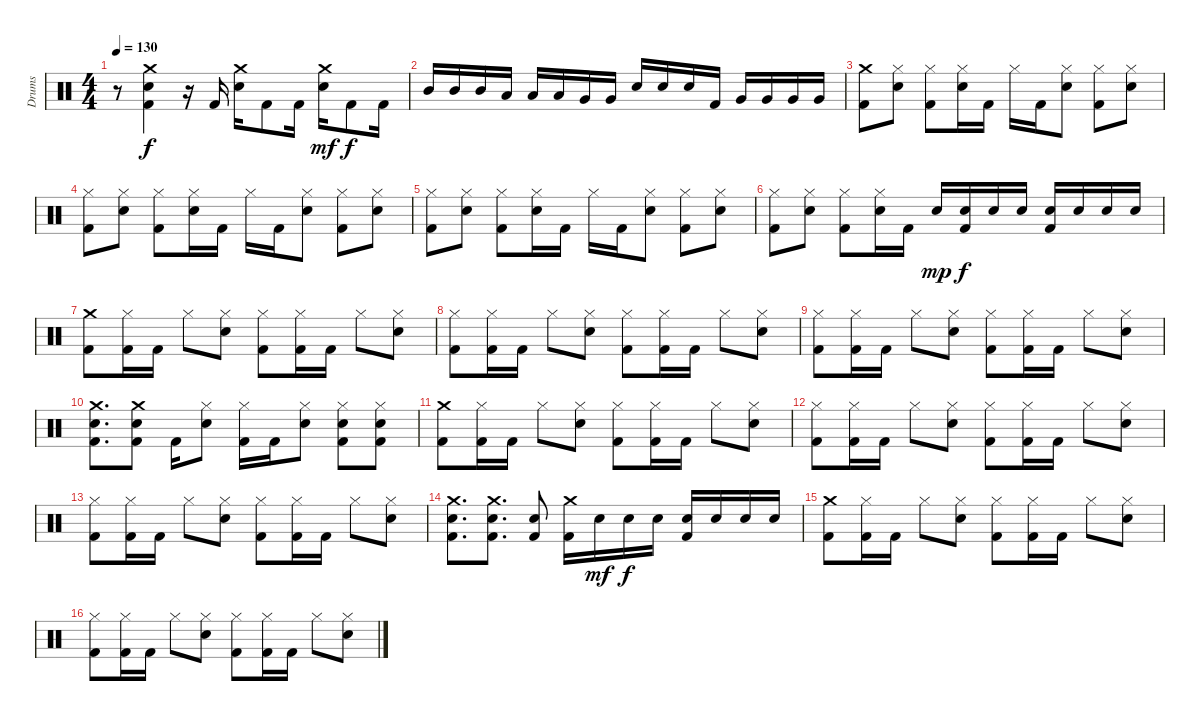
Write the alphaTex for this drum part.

\track ("Drums" "Drums") {instrument percussion}
\staff {score}
\articulation defaults
\ts (4 4)
\tempo 130
\clef neutral
\ks c
r.8{dy f} ("Crash medium (hit)" "Electric Snare (hit)" "Kick (hit) 2").4 r.16 "Kick (hit) 2".16 ("Crash medium (hit)" "Electric Snare (hit)").16 "Kick (hit) 2".8 "Kick (hit) 2".16 ("Crash medium (hit)" "Electric Snare (hit)").16{dy mf} "Kick (hit) 2".8{dy f} "Kick (hit) 2".16 |
"Mid Tom (hit)".16 "Mid Tom (hit)".16 "Mid Tom (hit)".16 "Low Tom (hit)".16 "Low Tom (hit)".16 "Low Tom (hit)".16 "Very Low Tom (hit)".16 "Very Low Tom (hit)".16 "Electric Snare (hit)".16 "Electric Snare (hit)".16 "Electric Snare (hit)".16 "Kick (hit) 2".16 "Very Low Tom (hit)".16 "Very Low Tom (hit)".16 "Very Low Tom (hit)".16 "Very Low Tom (hit)".16 |
("Crash medium (hit)" "Kick (hit) 2").8 ("Hi-Hat (closed)" "Electric Snare (hit)").8 ("Hi-Hat (closed)" "Kick (hit) 2").8 ("Hi-Hat (closed)" "Electric Snare (hit)").16 "Kick (hit) 2".16 "Hi-Hat (closed)".16 "Kick (hit) 2".16 ("Hi-Hat (closed)" "Electric Snare (hit)").8 ("Hi-Hat (closed)" "Kick (hit) 2").8 ("Hi-Hat (closed)" "Electric Snare (hit)").8 |
("Hi-Hat (closed)" "Kick (hit) 2").8 ("Hi-Hat (closed)" "Electric Snare (hit)").8 ("Hi-Hat (closed)" "Kick (hit) 2").8 ("Hi-Hat (closed)" "Electric Snare (hit)").16 "Kick (hit) 2".16 "Hi-Hat (closed)".16 "Kick (hit) 2".16 ("Hi-Hat (closed)" "Electric Snare (hit)").8 ("Hi-Hat (closed)" "Kick (hit) 2").8 ("Hi-Hat (closed)" "Electric Snare (hit)").8 |
("Hi-Hat (closed)" "Kick (hit) 2").8 ("Hi-Hat (closed)" "Electric Snare (hit)").8 ("Hi-Hat (closed)" "Kick (hit) 2").8 ("Hi-Hat (closed)" "Electric Snare (hit)").16 "Kick (hit) 2".16 "Hi-Hat (closed)".16 "Kick (hit) 2".16 ("Hi-Hat (closed)" "Electric Snare (hit)").8 ("Hi-Hat (closed)" "Kick (hit) 2").8 ("Hi-Hat (closed)" "Electric Snare (hit)").8 |
("Hi-Hat (closed)" "Kick (hit) 2").8 ("Hi-Hat (closed)" "Electric Snare (hit)").8 ("Hi-Hat (closed)" "Kick (hit) 2").8 ("Hi-Hat (closed)" "Electric Snare (hit)").16 "Kick (hit) 2".16 "Electric Snare (hit)".16{dy mp} ("Electric Snare (hit)" "Kick (hit) 2").16{dy f} "Electric Snare (hit)".16 "Electric Snare (hit)".16 ("Electric Snare (hit)" "Kick (hit) 2").16 "Electric Snare (hit)".16 "Electric Snare (hit)".16 "Electric Snare (hit)".16 |
("Crash medium (hit)" "Kick (hit) 2").8 ("Hi-Hat (closed)" "Kick (hit) 2").16 "Kick (hit) 2".16 "Hi-Hat (closed)".8 ("Hi-Hat (closed)" "Electric Snare (hit)").8 ("Hi-Hat (closed)" "Kick (hit) 2").8 ("Hi-Hat (closed)" "Kick (hit) 2").16 "Kick (hit) 2".16 "Hi-Hat (closed)".8 ("Hi-Hat (closed)" "Electric Snare (hit)").8 |
("Hi-Hat (closed)" "Kick (hit) 2").8 ("Hi-Hat (closed)" "Kick (hit) 2").16 "Kick (hit) 2".16 "Hi-Hat (closed)".8 ("Hi-Hat (closed)" "Electric Snare (hit)").8 ("Hi-Hat (closed)" "Kick (hit) 2").8 ("Hi-Hat (closed)" "Kick (hit) 2").16 "Kick (hit) 2".16 "Hi-Hat (closed)".8 ("Hi-Hat (closed)" "Electric Snare (hit)").8 |
("Hi-Hat (closed)" "Kick (hit) 2").8 ("Hi-Hat (closed)" "Kick (hit) 2").16 "Kick (hit) 2".16 "Hi-Hat (closed)".8 ("Hi-Hat (closed)" "Electric Snare (hit)").8 ("Hi-Hat (closed)" "Kick (hit) 2").8 ("Hi-Hat (closed)" "Kick (hit) 2").16 "Kick (hit) 2".16 "Hi-Hat (closed)".8 ("Hi-Hat (closed)" "Electric Snare (hit)").8 |
("Crash medium (hit)" "Electric Snare (hit)" "Kick (hit) 2").8{d} ("Crash medium (hit)" "Electric Snare (hit)" "Kick (hit) 2").8 "Kick (hit) 2".16 ("Hi-Hat (closed)" "Electric Snare (hit)").8 ("Hi-Hat (closed)" "Kick (hit) 2").16 "Kick (hit) 2".16 ("Hi-Hat (closed)" "Electric Snare (hit)").8 ("Hi-Hat (closed)" "Electric Snare (hit)" "Kick (hit) 2").8 ("Hi-Hat (closed)" "Electric Snare (hit)" "Kick (hit) 2").8 |
("Crash medium (hit)" "Kick (hit) 2").8 ("Hi-Hat (closed)" "Kick (hit) 2").16 "Kick (hit) 2".16 "Hi-Hat (closed)".8 ("Hi-Hat (closed)" "Electric Snare (hit)").8 ("Hi-Hat (closed)" "Kick (hit) 2").8 ("Hi-Hat (closed)" "Kick (hit) 2").16 "Kick (hit) 2".16 "Hi-Hat (closed)".8 ("Hi-Hat (closed)" "Electric Snare (hit)").8 |
("Hi-Hat (closed)" "Kick (hit) 2").8 ("Hi-Hat (closed)" "Kick (hit) 2").16 "Kick (hit) 2".16 "Hi-Hat (closed)".8 ("Hi-Hat (closed)" "Electric Snare (hit)").8 ("Hi-Hat (closed)" "Kick (hit) 2").8 ("Hi-Hat (closed)" "Kick (hit) 2").16 "Kick (hit) 2".16 "Hi-Hat (closed)".8 ("Hi-Hat (closed)" "Electric Snare (hit)").8 |
("Hi-Hat (closed)" "Kick (hit) 2").8 ("Hi-Hat (closed)" "Kick (hit) 2").16 "Kick (hit) 2".16 "Hi-Hat (closed)".8 ("Hi-Hat (closed)" "Electric Snare (hit)").8 ("Hi-Hat (closed)" "Kick (hit) 2").8 ("Hi-Hat (closed)" "Kick (hit) 2").16 "Kick (hit) 2".16 "Hi-Hat (closed)".8 ("Hi-Hat (closed)" "Electric Snare (hit)").8 |
("Crash medium (hit)" "Electric Snare (hit)" "Kick (hit) 2").8{d} ("Crash medium (hit)" "Electric Snare (hit)" "Kick (hit) 2").8{d} ("Electric Snare (hit)" "Kick (hit) 2").8 ("Crash medium (hit)" "Kick (hit) 2").16 "Electric Snare (hit)".16{dy mf} "Electric Snare (hit)".16{dy f} "Electric Snare (hit)".16 ("Electric Snare (hit)" "Kick (hit) 2").16 "Electric Snare (hit)".16 "Electric Snare (hit)".16 "Electric Snare (hit)".16 |
("Crash medium (hit)" "Kick (hit) 2").8 ("Hi-Hat (closed)" "Kick (hit) 2").16 "Kick (hit) 2".16 "Hi-Hat (closed)".8 ("Hi-Hat (closed)" "Electric Snare (hit)").8 ("Hi-Hat (closed)" "Kick (hit) 2").8 ("Hi-Hat (closed)" "Kick (hit) 2").16 "Kick (hit) 2".16 "Hi-Hat (closed)".8 ("Hi-Hat (closed)" "Electric Snare (hit)").8 |
("Hi-Hat (closed)" "Kick (hit) 2").8 ("Hi-Hat (closed)" "Kick (hit) 2").16 "Kick (hit) 2".16 "Hi-Hat (closed)".8 ("Hi-Hat (closed)" "Electric Snare (hit)").8 ("Hi-Hat (closed)" "Kick (hit) 2").8 ("Hi-Hat (closed)" "Kick (hit) 2").16 "Kick (hit) 2".16 "Hi-Hat (closed)".8 ("Hi-Hat (closed)" "Electric Snare (hit)").8
